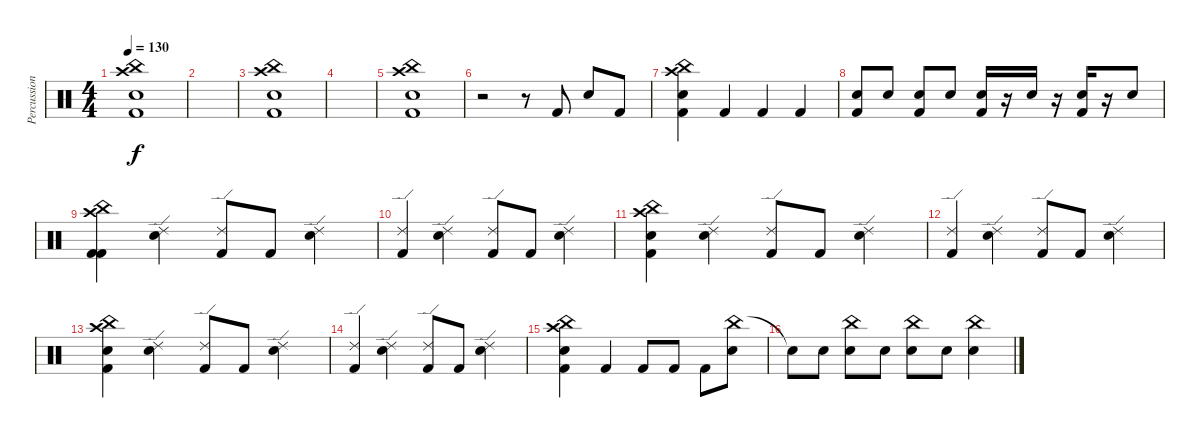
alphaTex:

\track ("Percussion" "Percussion") {instrument percussion}
\staff {score}
\articulation defaults
\ts (4 4)
\tempo 130
\clef neutral
\ks c
("China (hit)" "Crash high (hit)" "Snare (hit) 2" "Kick (hit) 2").1{dy f} |
|
("China (hit)" "Crash high (hit)" "Snare (hit) 2" "Kick (hit) 2").1 |
|
("China (hit)" "Crash high (hit)" "Snare (hit) 2" "Kick (hit) 2").1 |
r.2 r.8 "Kick (hit) 2".8 "Snare (hit) 2".8 "Kick (hit) 2".8 |
("China (hit)" "Crash high (hit)" "Snare (hit) 2" "Kick (hit) 2").4 "Kick (hit) 2".4 "Kick (hit) 2".4 "Kick (hit) 2".4 |
("Snare (hit) 2" "Kick (hit) 2").8 "Snare (hit) 2".8 ("Snare (hit) 2" "Kick (hit) 2").8 "Snare (hit) 2".8 ("Snare (hit) 2" "Kick (hit) 2").16 r.16 "Snare (hit) 2".16 r.16 ("Snare (hit) 2" "Kick (hit) 2").16 r.16 "Snare (hit) 2".8 |
("China (hit)" "Crash high (hit)" "Kick (hit) 2" "Kick (hit) 2").4 ("Ride (edge) 2" "Snare (hit) 2").4 ("Ride (edge) 2" "Kick (hit) 2").8 "Kick (hit) 2".8 ("Ride (edge) 2" "Snare (hit) 2").4 |
("Ride (edge) 2" "Kick (hit) 2").4 ("Ride (edge) 2" "Snare (hit) 2").4 ("Ride (edge) 2" "Kick (hit) 2").8 "Kick (hit) 2".8 ("Ride (edge) 2" "Snare (hit) 2").4 |
("China (hit)" "Crash high (hit)" "Snare (hit) 2" "Kick (hit) 2").4 ("Ride (edge) 2" "Snare (hit) 2").4 ("Ride (edge) 2" "Kick (hit) 2").8 "Kick (hit) 2".8 ("Ride (edge) 2" "Snare (hit) 2").4 |
("Ride (edge) 2" "Kick (hit) 2").4 ("Ride (edge) 2" "Snare (hit) 2").4 ("Ride (edge) 2" "Kick (hit) 2").8 "Kick (hit) 2".8 ("Ride (edge) 2" "Snare (hit) 2").4 |
("China (hit)" "Crash high (hit)" "Snare (hit) 2" "Kick (hit) 2").4 ("Ride (edge) 2" "Snare (hit) 2").4 ("Ride (edge) 2" "Kick (hit) 2").8 "Kick (hit) 2".8 ("Ride (edge) 2" "Snare (hit) 2").4 |
("Ride (edge) 2" "Kick (hit) 2").4 ("Ride (edge) 2" "Snare (hit) 2").4 ("Ride (edge) 2" "Kick (hit) 2").8 "Kick (hit) 2".8 ("Ride (edge) 2" "Snare (hit) 2").4 |
("Crash high (hit)" "China (hit)" "Snare (hit) 2" "Kick (hit) 2").4 "Kick (hit) 2".4 "Kick (hit) 2".8 "Kick (hit) 2".8 "Kick (hit) 2".8 ("China (hit)" "Snare (hit) 2").8 |
"Snare (hit)"{t}.8 "Snare (hit) 2".8 ("China (hit)" "Snare (hit) 2").8 "Snare (hit) 2".8 ("China (hit)" "Snare (hit) 2").8 "Snare (hit) 2".8 ("China (hit)" "Snare (hit) 2").4
